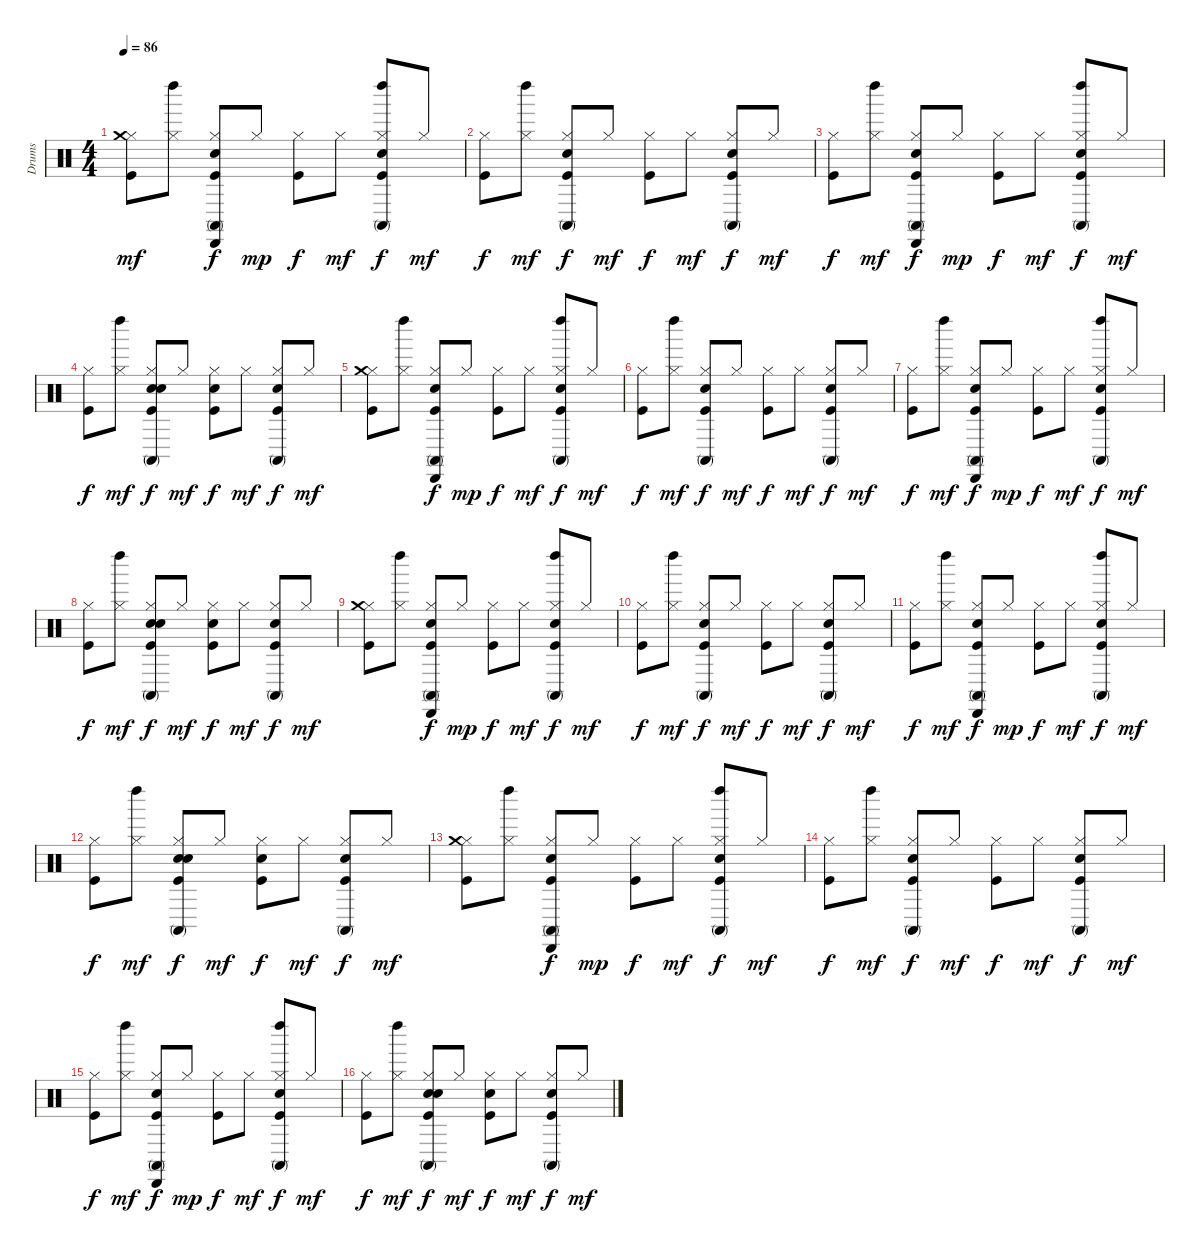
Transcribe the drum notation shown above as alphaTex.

\track ("Drums" "Drums") {instrument percussion}
\staff {score}
\articulation defaults
\ts (4 4)
\tempo 86
\clef neutral
\ks c
("Hi-Hat (closed)" "Crash medium (hit)" "Kick (hit)").8{dy mf} ("Hi-Hat (closed)" "Left Maraca (hit)").8 ("Cabasa (hit)" "Snare (hit) 2" "Conga high (mute)" "Hi-Hat (closed)" "Kick (hit)").8{dy f} "Hi-Hat (closed)".8{dy mp} ("Hi-Hat (closed)" "Kick (hit)").8{dy f} "Hi-Hat (closed)".8{dy mf} ("Left Maraca (hit)" "Snare (hit) 2" "Conga high (mute)" "Hi-Hat (closed)" "Kick (hit)").8{dy f} "Hi-Hat (closed)".8{dy mf} |
("Hi-Hat (closed)" "Kick (hit)").8{dy f} ("Hi-Hat (closed)" "Left Maraca (hit)").8{dy mf} ("Snare (hit) 2" "Conga high (mute)" "Hi-Hat (closed)" "Kick (hit)").8{dy f} "Hi-Hat (closed)".8{dy mf} ("Hi-Hat (closed)" "Kick (hit)").8{dy f} "Hi-Hat (closed)".8{dy mf} ("Snare (hit) 2" "Conga high (mute)" "Hi-Hat (closed)" "Kick (hit)").8{dy f} "Hi-Hat (closed)".8{dy mf} |
("Hi-Hat (closed)" "Kick (hit)").8{dy f} ("Hi-Hat (closed)" "Left Maraca (hit)").8{dy mf} ("Cabasa (hit)" "Snare (hit) 2" "Conga high (mute)" "Hi-Hat (closed)" "Kick (hit)").8{dy f} "Hi-Hat (closed)".8{dy mp} ("Hi-Hat (closed)" "Kick (hit)").8{dy f} "Hi-Hat (closed)".8{dy mf} ("Left Maraca (hit)" "Snare (hit) 2" "Conga high (mute)" "Hi-Hat (closed)" "Kick (hit)").8{dy f} "Hi-Hat (closed)".8{dy mf} |
("Hi-Hat (closed)" "Kick (hit)").8{dy f} ("Hi-Hat (closed)" "Left Maraca (hit)").8{dy mf} ("Snare (hit) 2" "Conga high (mute)" "Hi-Hat (closed)" "Kick (hit)" "Snare (hit) 2").8{dy f} "Hi-Hat (closed)".8{dy mf} ("Hi-Hat (closed)" "Kick (hit)" "Snare (hit) 2").8{dy f} "Hi-Hat (closed)".8{dy mf} ("Snare (hit) 2" "Conga high (mute)" "Hi-Hat (closed)" "Kick (hit)").8{dy f} "Hi-Hat (closed)".8{dy mf} |
("Hi-Hat (closed)" "Crash medium (hit)" "Kick (hit)").8 ("Hi-Hat (closed)" "Left Maraca (hit)").8 ("Cabasa (hit)" "Snare (hit) 2" "Conga high (mute)" "Hi-Hat (closed)" "Kick (hit)").8{dy f} "Hi-Hat (closed)".8{dy mp} ("Hi-Hat (closed)" "Kick (hit)").8{dy f} "Hi-Hat (closed)".8{dy mf} ("Left Maraca (hit)" "Snare (hit) 2" "Conga high (mute)" "Hi-Hat (closed)" "Kick (hit)").8{dy f} "Hi-Hat (closed)".8{dy mf} |
("Hi-Hat (closed)" "Kick (hit)").8{dy f} ("Hi-Hat (closed)" "Left Maraca (hit)").8{dy mf} ("Snare (hit) 2" "Conga high (mute)" "Hi-Hat (closed)" "Kick (hit)").8{dy f} "Hi-Hat (closed)".8{dy mf} ("Hi-Hat (closed)" "Kick (hit)").8{dy f} "Hi-Hat (closed)".8{dy mf} ("Snare (hit) 2" "Conga high (mute)" "Hi-Hat (closed)" "Kick (hit)").8{dy f} "Hi-Hat (closed)".8{dy mf} |
("Hi-Hat (closed)" "Kick (hit)").8{dy f} ("Hi-Hat (closed)" "Left Maraca (hit)").8{dy mf} ("Cabasa (hit)" "Snare (hit) 2" "Conga high (mute)" "Hi-Hat (closed)" "Kick (hit)").8{dy f} "Hi-Hat (closed)".8{dy mp} ("Hi-Hat (closed)" "Kick (hit)").8{dy f} "Hi-Hat (closed)".8{dy mf} ("Left Maraca (hit)" "Snare (hit) 2" "Conga high (mute)" "Hi-Hat (closed)" "Kick (hit)").8{dy f} "Hi-Hat (closed)".8{dy mf} |
("Hi-Hat (closed)" "Kick (hit)").8{dy f} ("Hi-Hat (closed)" "Left Maraca (hit)").8{dy mf} ("Snare (hit) 2" "Conga high (mute)" "Hi-Hat (closed)" "Kick (hit)" "Snare (hit) 2").8{dy f} "Hi-Hat (closed)".8{dy mf} ("Hi-Hat (closed)" "Kick (hit)" "Snare (hit) 2").8{dy f} "Hi-Hat (closed)".8{dy mf} ("Snare (hit) 2" "Conga high (mute)" "Hi-Hat (closed)" "Kick (hit)").8{dy f} "Hi-Hat (closed)".8{dy mf} |
("Hi-Hat (closed)" "Crash medium (hit)" "Kick (hit)").8 ("Hi-Hat (closed)" "Left Maraca (hit)").8 ("Cabasa (hit)" "Snare (hit) 2" "Conga high (mute)" "Hi-Hat (closed)" "Kick (hit)").8{dy f} "Hi-Hat (closed)".8{dy mp} ("Hi-Hat (closed)" "Kick (hit)").8{dy f} "Hi-Hat (closed)".8{dy mf} ("Left Maraca (hit)" "Snare (hit) 2" "Conga high (mute)" "Hi-Hat (closed)" "Kick (hit)").8{dy f} "Hi-Hat (closed)".8{dy mf} |
("Hi-Hat (closed)" "Kick (hit)").8{dy f} ("Hi-Hat (closed)" "Left Maraca (hit)").8{dy mf} ("Snare (hit) 2" "Conga high (mute)" "Hi-Hat (closed)" "Kick (hit)").8{dy f} "Hi-Hat (closed)".8{dy mf} ("Hi-Hat (closed)" "Kick (hit)").8{dy f} "Hi-Hat (closed)".8{dy mf} ("Snare (hit) 2" "Conga high (mute)" "Hi-Hat (closed)" "Kick (hit)").8{dy f} "Hi-Hat (closed)".8{dy mf} |
("Hi-Hat (closed)" "Kick (hit)").8{dy f} ("Hi-Hat (closed)" "Left Maraca (hit)").8{dy mf} ("Cabasa (hit)" "Snare (hit) 2" "Conga high (mute)" "Hi-Hat (closed)" "Kick (hit)").8{dy f} "Hi-Hat (closed)".8{dy mp} ("Hi-Hat (closed)" "Kick (hit)").8{dy f} "Hi-Hat (closed)".8{dy mf} ("Left Maraca (hit)" "Snare (hit) 2" "Conga high (mute)" "Hi-Hat (closed)" "Kick (hit)").8{dy f} "Hi-Hat (closed)".8{dy mf} |
("Hi-Hat (closed)" "Kick (hit)").8{dy f} ("Hi-Hat (closed)" "Left Maraca (hit)").8{dy mf} ("Snare (hit) 2" "Conga high (mute)" "Hi-Hat (closed)" "Kick (hit)" "Snare (hit) 2").8{dy f} "Hi-Hat (closed)".8{dy mf} ("Hi-Hat (closed)" "Kick (hit)" "Snare (hit) 2").8{dy f} "Hi-Hat (closed)".8{dy mf} ("Snare (hit) 2" "Conga high (mute)" "Hi-Hat (closed)" "Kick (hit)").8{dy f} "Hi-Hat (closed)".8{dy mf} |
("Hi-Hat (closed)" "Crash medium (hit)" "Kick (hit)").8 ("Hi-Hat (closed)" "Left Maraca (hit)").8 ("Cabasa (hit)" "Snare (hit) 2" "Conga high (mute)" "Hi-Hat (closed)" "Kick (hit)").8{dy f} "Hi-Hat (closed)".8{dy mp} ("Hi-Hat (closed)" "Kick (hit)").8{dy f} "Hi-Hat (closed)".8{dy mf} ("Left Maraca (hit)" "Snare (hit) 2" "Conga high (mute)" "Hi-Hat (closed)" "Kick (hit)").8{dy f} "Hi-Hat (closed)".8{dy mf} |
("Hi-Hat (closed)" "Kick (hit)").8{dy f} ("Hi-Hat (closed)" "Left Maraca (hit)").8{dy mf} ("Snare (hit) 2" "Conga high (mute)" "Hi-Hat (closed)" "Kick (hit)").8{dy f} "Hi-Hat (closed)".8{dy mf} ("Hi-Hat (closed)" "Kick (hit)").8{dy f} "Hi-Hat (closed)".8{dy mf} ("Snare (hit) 2" "Conga high (mute)" "Hi-Hat (closed)" "Kick (hit)").8{dy f} "Hi-Hat (closed)".8{dy mf} |
("Hi-Hat (closed)" "Kick (hit)").8{dy f} ("Hi-Hat (closed)" "Left Maraca (hit)").8{dy mf} ("Cabasa (hit)" "Snare (hit) 2" "Conga high (mute)" "Hi-Hat (closed)" "Kick (hit)").8{dy f} "Hi-Hat (closed)".8{dy mp} ("Hi-Hat (closed)" "Kick (hit)").8{dy f} "Hi-Hat (closed)".8{dy mf} ("Left Maraca (hit)" "Snare (hit) 2" "Conga high (mute)" "Hi-Hat (closed)" "Kick (hit)").8{dy f} "Hi-Hat (closed)".8{dy mf} |
("Hi-Hat (closed)" "Kick (hit)").8{dy f} ("Hi-Hat (closed)" "Left Maraca (hit)").8{dy mf} ("Snare (hit) 2" "Conga high (mute)" "Hi-Hat (closed)" "Kick (hit)" "Snare (hit) 2").8{dy f} "Hi-Hat (closed)".8{dy mf} ("Hi-Hat (closed)" "Kick (hit)" "Snare (hit) 2").8{dy f} "Hi-Hat (closed)".8{dy mf} ("Snare (hit) 2" "Conga high (mute)" "Hi-Hat (closed)" "Kick (hit)").8{dy f} "Hi-Hat (closed)".8{dy mf}
